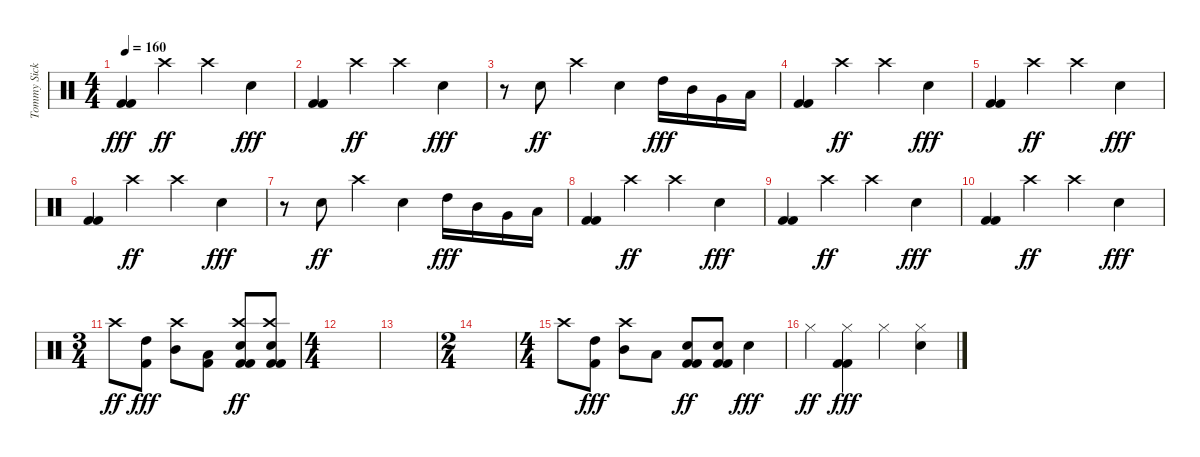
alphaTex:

\track ("Tommy Sickles" "Tommy Sick") {instrument percussion}
\staff {score}
\articulation defaults
\ts (4 4)
\tempo 160
\clef neutral
\ks c
("Kick (hit) 2" "Kick (hit) 2").4{dy fff} "Crash high (hit)".4{dy ff} "Crash high (hit)".4 "Electric Snare (hit)".4{dy fff} |
("Kick (hit) 2" "Kick (hit) 2").4 "Crash high (hit)".4{dy ff} "Crash high (hit)".4 "Electric Snare (hit)".4{dy fff} |
r.8 "Electric Snare (hit)".8{dy ff} "Crash high (hit)".4 "Electric Snare (hit)".4 "High Tom (hit)".16{dy fff} "Mid Tom (hit)".16 "Very Low Tom (hit)".16 "Low Floor Tom (hit)".16 |
("Kick (hit) 2" "Kick (hit) 2").4 "Crash high (hit)".4{dy ff} "Crash high (hit)".4 "Electric Snare (hit)".4{dy fff} |
("Kick (hit) 2" "Kick (hit) 2").4 "Crash high (hit)".4{dy ff} "Crash high (hit)".4 "Electric Snare (hit)".4{dy fff} |
("Kick (hit) 2" "Kick (hit) 2").4 "Crash high (hit)".4{dy ff} "Crash high (hit)".4 "Electric Snare (hit)".4{dy fff} |
r.8 "Electric Snare (hit)".8{dy ff} "Crash high (hit)".4 "Electric Snare (hit)".4 "High Tom (hit)".16{dy fff} "Mid Tom (hit)".16 "Very Low Tom (hit)".16 "Low Floor Tom (hit)".16 |
("Kick (hit) 2" "Kick (hit) 2").4 "Crash high (hit)".4{dy ff} "Crash high (hit)".4 "Electric Snare (hit)".4{dy fff} |
("Kick (hit) 2" "Kick (hit) 2").4 "Crash high (hit)".4{dy ff} "Crash high (hit)".4 "Electric Snare (hit)".4{dy fff} |
("Kick (hit) 2" "Kick (hit) 2").4 "Crash high (hit)".4{dy ff} "Crash high (hit)".4 "Electric Snare (hit)".4{dy fff} |
\ts (3 4)
"Crash high (hit)".8{dy ff} ("High Tom (hit)" "Kick (hit) 2").8{dy fff} ("Crash high (hit)" "Mid Tom (hit)").8 ("Low Tom (hit)" "Kick (hit) 2").8 ("Crash high (hit)" "Kick (hit) 2" "Kick (hit) 2" "Electric Snare (hit)").8{dy ff} ("Crash high (hit)" "Kick (hit) 2" "Kick (hit) 2" "Electric Snare (hit)").8 |
\ts (4 4)
|
|
\ts (2 4)
|
\ts (4 4)
"Crash high (hit)".8 ("High Tom (hit)" "Kick (hit) 2").8{dy fff} ("Crash high (hit)" "Mid Tom (hit)").8 "Low Tom (hit)".8 ("Kick (hit) 2" "Kick (hit) 2" "Electric Snare (hit)").8{dy ff} ("Kick (hit) 2" "Kick (hit) 2" "Electric Snare (hit)").8 "Electric Snare (hit)".4{dy fff} |
"Hi-Hat (closed)".4{dy ff} ("Hi-Hat (closed)" "Kick (hit) 2" "Kick (hit) 2").4{dy fff} "Hi-Hat (closed)".4 ("Hi-Hat (closed)" "Electric Snare (hit)").4
